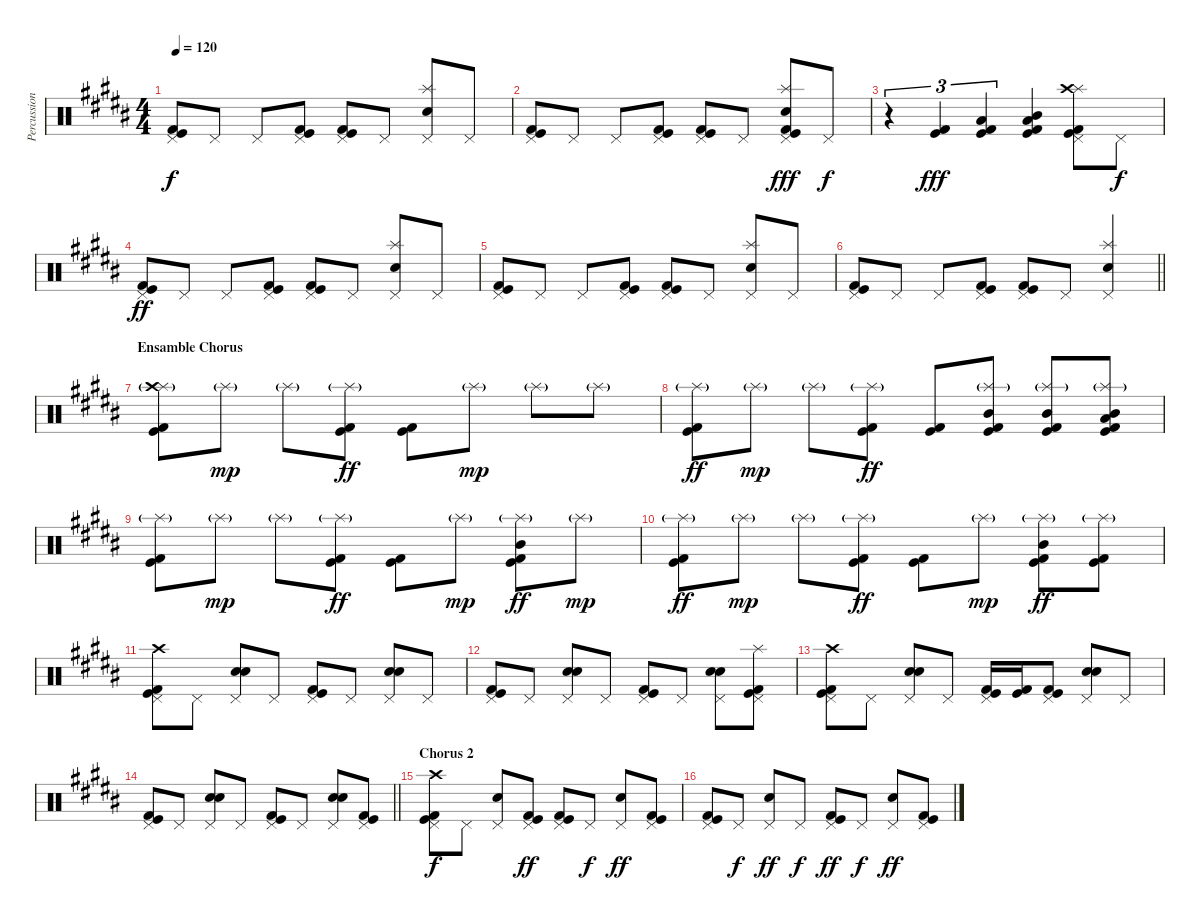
\track ("Percussion" "Percussion") {instrument percussion}
\staff {score}
\articulation defaults
\ts (4 4)
\tempo 120
\clef neutral
\ks b
("Pedal Hi-Hat (hit)" "Kick (hit)" "Kick (hit) 2").8{dy f} "Pedal Hi-Hat (hit)".8 "Pedal Hi-Hat (hit)".8 ("Pedal Hi-Hat (hit)" "Kick (hit)" "Kick (hit) 2").8 ("Pedal Hi-Hat (hit)" "Kick (hit)" "Kick (hit) 2").8 "Pedal Hi-Hat (hit)".8 ("Splash (hit)" "Snare (hit) 2" "Pedal Hi-Hat (hit)").8 "Pedal Hi-Hat (hit)".8 |
("Pedal Hi-Hat (hit)" "Kick (hit)" "Kick (hit) 2").8 "Pedal Hi-Hat (hit)".8 "Pedal Hi-Hat (hit)".8 ("Pedal Hi-Hat (hit)" "Kick (hit)" "Kick (hit) 2").8 ("Pedal Hi-Hat (hit)" "Kick (hit)" "Kick (hit) 2").8 "Pedal Hi-Hat (hit)".8 ("Splash (hit)" "Snare (hit) 2" "Pedal Hi-Hat (hit)" "Kick (hit)" "Kick (hit) 2").8{dy fff} "Pedal Hi-Hat (hit)".8{dy f} |
r.4{tu (3 2)} ("Kick (hit)" "Kick (hit) 2").4{tu (3 2) dy fff} ("Low Tom (hit)" "Kick (hit)" "Kick (hit) 2").4{tu (3 2)} ("Mid Tom (hit)" "Low Tom (hit)" "Kick (hit)" "Kick (hit) 2").4 ("Splash (hit)" "Crash high (hit)" "Pedal Hi-Hat (hit)" "Kick (hit)" "Kick (hit) 2").8 "Pedal Hi-Hat (hit)".8{dy f} |
("Pedal Hi-Hat (hit)" "Kick (hit)" "Kick (hit) 2").8{dy ff} "Pedal Hi-Hat (hit)".8 "Pedal Hi-Hat (hit)".8 ("Pedal Hi-Hat (hit)" "Kick (hit)" "Kick (hit) 2").8 ("Pedal Hi-Hat (hit)" "Kick (hit)" "Kick (hit) 2").8 "Pedal Hi-Hat (hit)".8 ("Splash (hit)" "Snare (hit) 2" "Pedal Hi-Hat (hit)").8 "Pedal Hi-Hat (hit)".8 |
("Pedal Hi-Hat (hit)" "Kick (hit)" "Kick (hit) 2").8 "Pedal Hi-Hat (hit)".8 "Pedal Hi-Hat (hit)".8 ("Pedal Hi-Hat (hit)" "Kick (hit)" "Kick (hit) 2").8 ("Pedal Hi-Hat (hit)" "Kick (hit)" "Kick (hit) 2").8 "Pedal Hi-Hat (hit)".8 ("Splash (hit)" "Snare (hit) 2" "Pedal Hi-Hat (hit)").8 "Pedal Hi-Hat (hit)".8 |
\barLineRight lightlight
("Pedal Hi-Hat (hit)" "Kick (hit)" "Kick (hit) 2").8 "Pedal Hi-Hat (hit)".8 "Pedal Hi-Hat (hit)".8 ("Pedal Hi-Hat (hit)" "Kick (hit)" "Kick (hit) 2").8 ("Pedal Hi-Hat (hit)" "Kick (hit)" "Kick (hit) 2").8 "Pedal Hi-Hat (hit)".8 ("Splash (hit)" "Snare (hit) 2" "Pedal Hi-Hat (hit)").4 |
\section ("" "Ensamble Chorus")
("Splash (hit)"{g} "Crash high (hit)" "Kick (hit)" "Kick (hit) 2").8 "Splash (hit)"{g}.8{dy mp} "Splash (hit)"{g}.8 ("Splash (hit)"{g} "Kick (hit)" "Kick (hit) 2").8{dy ff} ("Kick (hit)" "Kick (hit) 2").8 "Splash (hit)"{g}.8{dy mp} "Splash (hit)"{g}.8 "Splash (hit)"{g}.8 |
("Splash (hit)"{g} "Kick (hit)" "Kick (hit) 2").8{dy ff} "Splash (hit)"{g}.8{dy mp} "Splash (hit)"{g}.8 ("Splash (hit)"{g} "Kick (hit)" "Kick (hit) 2").8{dy ff} ("Kick (hit)" "Kick (hit) 2").8 ("Splash (hit)"{g} "Mid Tom (hit)" "Kick (hit)" "Kick (hit) 2").8 ("Splash (hit)"{g} "Mid Tom (hit)" "Kick (hit)" "Kick (hit) 2").8 ("Splash (hit)"{g} "Low Tom (hit)" "Mid Tom (hit)" "Kick (hit)" "Kick (hit) 2").8 |
("Splash (hit)"{g} "Kick (hit)" "Kick (hit) 2").8 "Splash (hit)"{g}.8{dy mp} "Splash (hit)"{g}.8 ("Splash (hit)"{g} "Kick (hit)" "Kick (hit) 2").8{dy ff} ("Kick (hit)" "Kick (hit) 2").8 "Splash (hit)"{g}.8{dy mp} ("Splash (hit)"{g} "Mid Tom (hit)" "Kick (hit) 2" "Kick (hit)").8{dy ff} "Splash (hit)"{g}.8{dy mp} |
("Splash (hit)"{g} "Kick (hit)" "Kick (hit) 2").8{dy ff} "Splash (hit)"{g}.8{dy mp} "Splash (hit)"{g}.8 ("Splash (hit)"{g} "Kick (hit) 2" "Kick (hit)").8{dy ff} ("Kick (hit) 2" "Kick (hit)").8 "Splash (hit)"{g}.8{dy mp} ("Splash (hit)"{g} "Mid Tom (hit)" "Kick (hit) 2" "Kick (hit)").8{dy ff} ("Splash (hit)"{g} "Kick (hit)" "Kick (hit) 2").8 |
("Crash high (hit)" "Pedal Hi-Hat (hit)" "Kick (hit)" "Kick (hit) 2").8 "Pedal Hi-Hat (hit)".8 ("Electric Snare (hit)" "Snare (hit) 2" "Pedal Hi-Hat (hit)").8 "Pedal Hi-Hat (hit)".8 ("Pedal Hi-Hat (hit)" "Kick (hit)" "Kick (hit) 2").8 "Pedal Hi-Hat (hit)".8 ("Electric Snare (hit)" "Snare (hit) 2" "Pedal Hi-Hat (hit)").8 "Pedal Hi-Hat (hit)".8 |
("Pedal Hi-Hat (hit)" "Kick (hit)" "Kick (hit) 2").8 "Pedal Hi-Hat (hit)".8 ("Electric Snare (hit)" "Snare (hit) 2" "Pedal Hi-Hat (hit)").8 "Pedal Hi-Hat (hit)".8 ("Pedal Hi-Hat (hit)" "Kick (hit)" "Kick (hit) 2").8 "Pedal Hi-Hat (hit)".8 ("Electric Snare (hit)" "Snare (hit) 2" "Pedal Hi-Hat (hit)").8 ("Splash (hit)" "Pedal Hi-Hat (hit)" "Kick (hit)" "Kick (hit) 2").8 |
("Crash high (hit)" "Pedal Hi-Hat (hit)" "Kick (hit)" "Kick (hit) 2").8 "Pedal Hi-Hat (hit)".8 ("Electric Snare (hit)" "Snare (hit) 2" "Pedal Hi-Hat (hit)").8 "Pedal Hi-Hat (hit)".8 ("Pedal Hi-Hat (hit)" "Kick (hit)" "Kick (hit) 2").16 ("Kick (hit)" "Kick (hit) 2").16 ("Pedal Hi-Hat (hit)" "Kick (hit)" "Kick (hit) 2").8 ("Electric Snare (hit)" "Snare (hit) 2" "Pedal Hi-Hat (hit)").8 "Pedal Hi-Hat (hit)".8 |
\barLineRight lightlight
("Pedal Hi-Hat (hit)" "Kick (hit)" "Kick (hit) 2").8 "Pedal Hi-Hat (hit)".8 ("Electric Snare (hit)" "Snare (hit) 2" "Pedal Hi-Hat (hit)").8 "Pedal Hi-Hat (hit)".8 ("Pedal Hi-Hat (hit)" "Kick (hit)" "Kick (hit) 2").8 "Pedal Hi-Hat (hit)".8 ("Electric Snare (hit)" "Snare (hit) 2" "Pedal Hi-Hat (hit)").8 ("Pedal Hi-Hat (hit)" "Kick (hit)" "Kick (hit) 2").8 |
\section ("" "Chorus 2")
("Crash high (hit)" "Pedal Hi-Hat (hit)" "Kick (hit)" "Kick (hit) 2").8{dy f} "Pedal Hi-Hat (hit)".8 ("Snare (hit) 2" "Pedal Hi-Hat (hit)").8 ("Pedal Hi-Hat (hit)" "Kick (hit) 2" "Kick (hit)").8{dy ff} ("Pedal Hi-Hat (hit)" "Kick (hit) 2" "Kick (hit)").8 "Pedal Hi-Hat (hit)".8{dy f} ("Snare (hit) 2" "Pedal Hi-Hat (hit)").8{dy ff} ("Pedal Hi-Hat (hit)" "Kick (hit)" "Kick (hit) 2").8 |
("Pedal Hi-Hat (hit)" "Kick (hit)" "Kick (hit) 2").8 "Pedal Hi-Hat (hit)".8{dy f} ("Snare (hit) 2" "Pedal Hi-Hat (hit)").8{dy ff} "Pedal Hi-Hat (hit)".8{dy f} ("Pedal Hi-Hat (hit)" "Kick (hit)" "Kick (hit) 2").8{dy ff} "Pedal Hi-Hat (hit)".8{dy f} ("Snare (hit) 2" "Pedal Hi-Hat (hit)").8{dy ff} ("Pedal Hi-Hat (hit)" "Kick (hit)" "Kick (hit) 2").8
